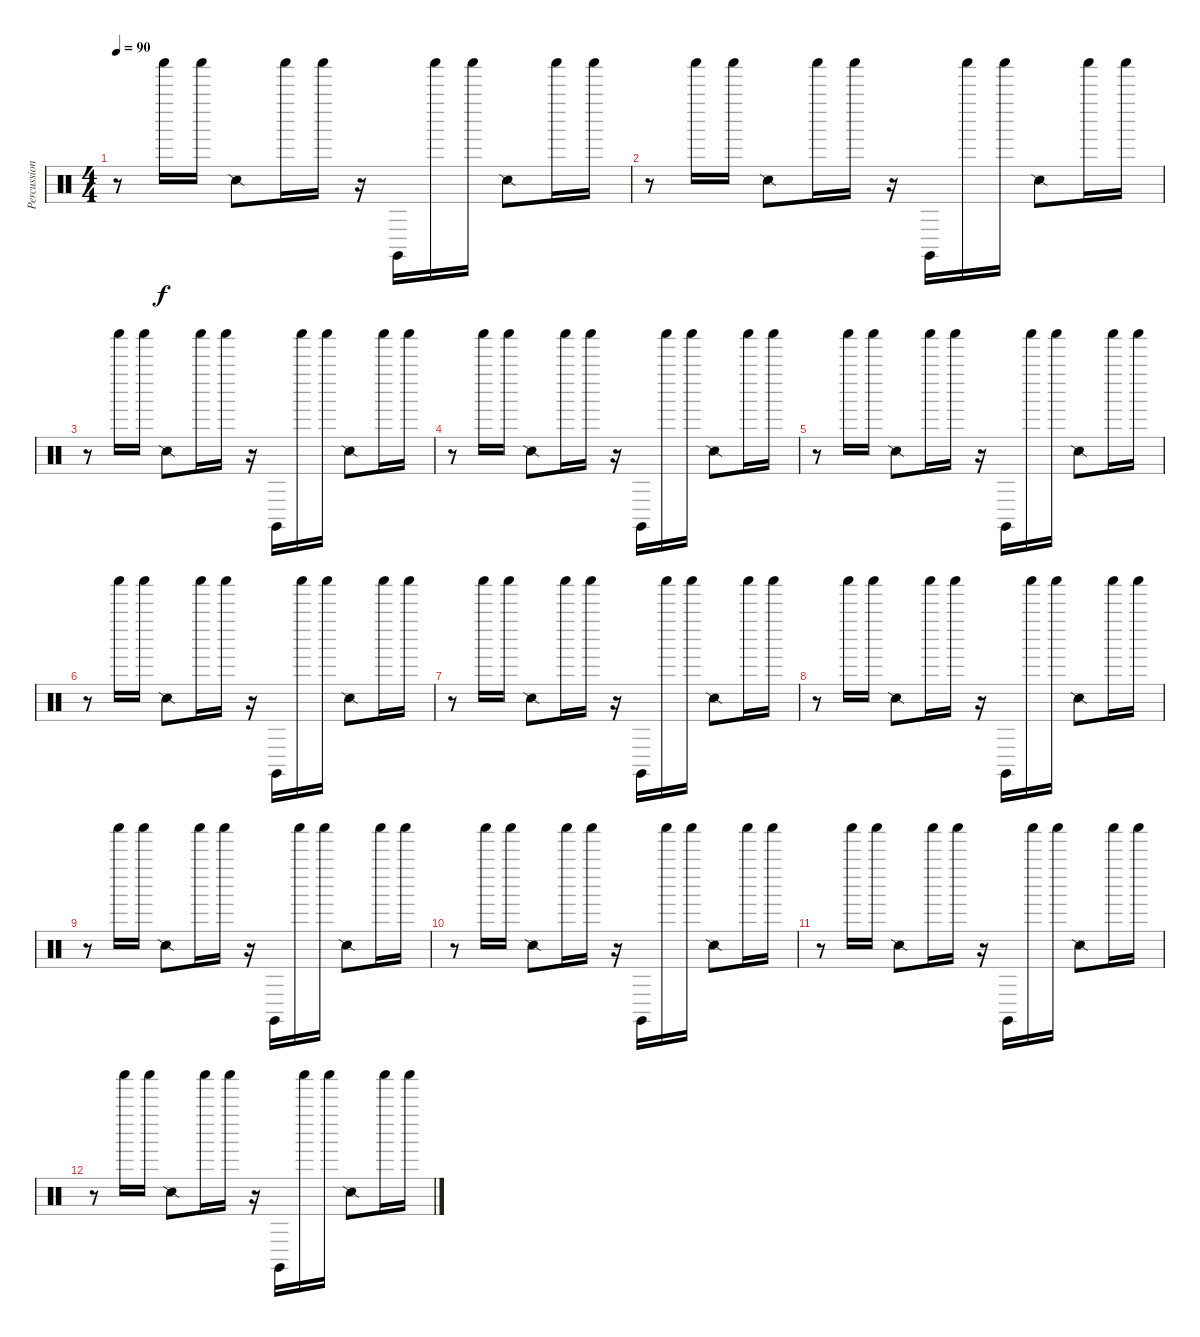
\track ("Percussion" "Percussion") {instrument percussion}
\staff {score}
\articulation defaults
\ts (4 4)
\tempo 90
\clef neutral
\ks c
r.8{dy f} "Shaker (hit)".16 "Shaker (hit)".16 "Snare (side stick) 2".8 "Shaker (hit)".16 "Shaker (hit)".16 r.16 "Claves (hit)".16 "Shaker (hit)".16 "Shaker (hit)".16 "Snare (side stick) 2".8 "Shaker (hit)".16 "Shaker (hit)".16 |
r.8 "Shaker (hit)".16 "Shaker (hit)".16 "Snare (side stick) 2".8 "Shaker (hit)".16 "Shaker (hit)".16 r.16 "Claves (hit)".16 "Shaker (hit)".16 "Shaker (hit)".16 "Snare (side stick) 2".8 "Shaker (hit)".16 "Shaker (hit)".16 |
r.8 "Shaker (hit)".16 "Shaker (hit)".16 "Snare (side stick) 2".8 "Shaker (hit)".16 "Shaker (hit)".16 r.16 "Claves (hit)".16 "Shaker (hit)".16 "Shaker (hit)".16 "Snare (side stick) 2".8 "Shaker (hit)".16 "Shaker (hit)".16 |
r.8 "Shaker (hit)".16 "Shaker (hit)".16 "Snare (side stick) 2".8 "Shaker (hit)".16 "Shaker (hit)".16 r.16 "Claves (hit)".16 "Shaker (hit)".16 "Shaker (hit)".16 "Snare (side stick) 2".8 "Shaker (hit)".16 "Shaker (hit)".16 |
r.8 "Shaker (hit)".16 "Shaker (hit)".16 "Snare (side stick) 2".8 "Shaker (hit)".16 "Shaker (hit)".16 r.16 "Claves (hit)".16 "Shaker (hit)".16 "Shaker (hit)".16 "Snare (side stick) 2".8 "Shaker (hit)".16 "Shaker (hit)".16 |
r.8 "Shaker (hit)".16 "Shaker (hit)".16 "Snare (side stick) 2".8 "Shaker (hit)".16 "Shaker (hit)".16 r.16 "Claves (hit)".16 "Shaker (hit)".16 "Shaker (hit)".16 "Snare (side stick) 2".8 "Shaker (hit)".16 "Shaker (hit)".16 |
r.8 "Shaker (hit)".16 "Shaker (hit)".16 "Snare (side stick) 2".8 "Shaker (hit)".16 "Shaker (hit)".16 r.16 "Claves (hit)".16 "Shaker (hit)".16 "Shaker (hit)".16 "Snare (side stick) 2".8 "Shaker (hit)".16 "Shaker (hit)".16 |
r.8 "Shaker (hit)".16 "Shaker (hit)".16 "Snare (side stick) 2".8 "Shaker (hit)".16 "Shaker (hit)".16 r.16 "Claves (hit)".16 "Shaker (hit)".16 "Shaker (hit)".16 "Snare (side stick) 2".8 "Shaker (hit)".16 "Shaker (hit)".16 |
r.8 "Shaker (hit)".16 "Shaker (hit)".16 "Snare (side stick) 2".8 "Shaker (hit)".16 "Shaker (hit)".16 r.16 "Claves (hit)".16 "Shaker (hit)".16 "Shaker (hit)".16 "Snare (side stick) 2".8 "Shaker (hit)".16 "Shaker (hit)".16 |
r.8 "Shaker (hit)".16 "Shaker (hit)".16 "Snare (side stick) 2".8 "Shaker (hit)".16 "Shaker (hit)".16 r.16 "Claves (hit)".16 "Shaker (hit)".16 "Shaker (hit)".16 "Snare (side stick) 2".8 "Shaker (hit)".16 "Shaker (hit)".16 |
r.8 "Shaker (hit)".16 "Shaker (hit)".16 "Snare (side stick) 2".8 "Shaker (hit)".16 "Shaker (hit)".16 r.16 "Claves (hit)".16 "Shaker (hit)".16 "Shaker (hit)".16 "Snare (side stick) 2".8 "Shaker (hit)".16 "Shaker (hit)".16 |
r.8 "Shaker (hit)".16 "Shaker (hit)".16 "Snare (side stick) 2".8 "Shaker (hit)".16 "Shaker (hit)".16 r.16 "Claves (hit)".16 "Shaker (hit)".16 "Shaker (hit)".16 "Snare (side stick) 2".8 "Shaker (hit)".16 "Shaker (hit)".16
